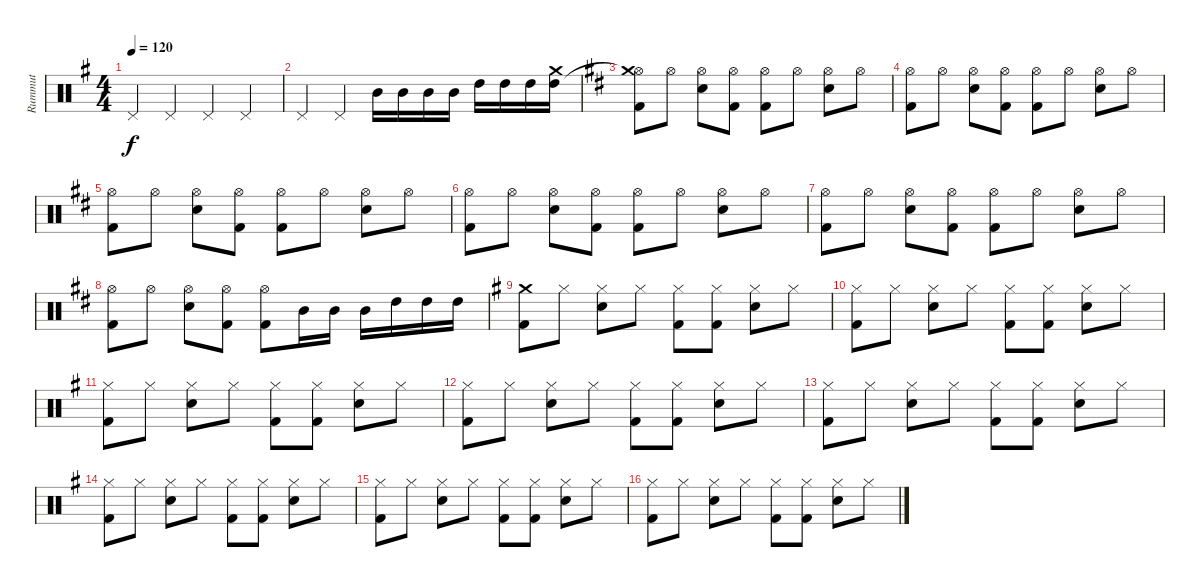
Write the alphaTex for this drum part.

\track ("Rummut" "Rummut") {instrument percussion}
\staff {score}
\articulation defaults
\ts (4 4)
\tempo 120
\clef neutral
\ks g "Pedal Hi-Hat (hit)".4{dy f} "Pedal Hi-Hat (hit)".4 "Pedal Hi-Hat (hit)".4 "Pedal Hi-Hat (hit)".4
|
"Pedal Hi-Hat (hit)".4 "Pedal Hi-Hat (hit)".4 "Mid Tom (hit)".16 "Mid Tom (hit)".16 "Mid Tom (hit)".16 "Mid Tom (hit)".16 "High Tom (hit)".16 "High Tom (hit)".16 "High Tom (hit)".16 ("Crash medium (hit)" "High Tom (hit)").16 |
\ks d
("Hi-Hat (open)" "Crash medium (hit)"{t} "Kick (hit) 2").8 "Hi-Hat (open)".8 ("Hi-Hat (open)" "Electric Snare (hit)").8 ("Hi-Hat (open)" "Kick (hit) 2").8 ("Hi-Hat (open)" "Kick (hit) 2").8 "Hi-Hat (open)".8 ("Hi-Hat (open)" "Electric Snare (hit)").8 "Hi-Hat (open)".8 |
("Hi-Hat (open)" "Kick (hit) 2").8 "Hi-Hat (open)".8 ("Hi-Hat (open)" "Electric Snare (hit)").8 ("Hi-Hat (open)" "Kick (hit) 2").8 ("Hi-Hat (open)" "Kick (hit) 2").8 "Hi-Hat (open)".8 ("Hi-Hat (open)" "Electric Snare (hit)").8 "Hi-Hat (open)".8 |
("Hi-Hat (open)" "Kick (hit) 2").8 "Hi-Hat (open)".8 ("Hi-Hat (open)" "Electric Snare (hit)").8 ("Hi-Hat (open)" "Kick (hit) 2").8 ("Hi-Hat (open)" "Kick (hit) 2").8 "Hi-Hat (open)".8 ("Hi-Hat (open)" "Electric Snare (hit)").8 "Hi-Hat (open)".8 |
("Hi-Hat (open)" "Kick (hit) 2").8 "Hi-Hat (open)".8 ("Hi-Hat (open)" "Electric Snare (hit)").8 ("Hi-Hat (open)" "Kick (hit) 2").8 ("Hi-Hat (open)" "Kick (hit) 2").8 "Hi-Hat (open)".8 ("Hi-Hat (open)" "Electric Snare (hit)").8 "Hi-Hat (open)".8 |
("Hi-Hat (open)" "Kick (hit) 2").8 "Hi-Hat (open)".8 ("Hi-Hat (open)" "Electric Snare (hit)").8 ("Hi-Hat (open)" "Kick (hit) 2").8 ("Hi-Hat (open)" "Kick (hit) 2").8 "Hi-Hat (open)".8 ("Hi-Hat (open)" "Electric Snare (hit)").8 "Hi-Hat (open)".8 |
("Hi-Hat (open)" "Kick (hit) 2").8 "Hi-Hat (open)".8 ("Hi-Hat (open)" "Electric Snare (hit)").8 ("Hi-Hat (open)" "Kick (hit) 2").8 ("Hi-Hat (open)" "Kick (hit) 2").8 "Mid Tom (hit)".16 "Mid Tom (hit)".16 "Mid Tom (hit)".16 "High Tom (hit)".16 "High Tom (hit)".16 "High Tom (hit)".16 |
\ks g
("Kick (hit) 2" "Crash medium (hit)").8 "Hi-Hat (closed)".8 ("Snare (hit) 2" "Hi-Hat (closed)").8 "Hi-Hat (closed)".8 ("Kick (hit) 2" "Hi-Hat (closed)").8 ("Kick (hit) 2" "Hi-Hat (closed)").8 ("Snare (hit) 2" "Hi-Hat (closed)").8 "Hi-Hat (closed)".8 |
("Kick (hit) 2" "Hi-Hat (closed)").8 "Hi-Hat (closed)".8 ("Snare (hit) 2" "Hi-Hat (closed)").8 "Hi-Hat (closed)".8 ("Kick (hit) 2" "Hi-Hat (closed)").8 ("Kick (hit) 2" "Hi-Hat (closed)").8 ("Snare (hit) 2" "Hi-Hat (closed)").8 "Hi-Hat (closed)".8 |
("Kick (hit) 2" "Hi-Hat (closed)").8 "Hi-Hat (closed)".8 ("Snare (hit) 2" "Hi-Hat (closed)").8 "Hi-Hat (closed)".8 ("Kick (hit) 2" "Hi-Hat (closed)").8 ("Kick (hit) 2" "Hi-Hat (closed)").8 ("Snare (hit) 2" "Hi-Hat (closed)").8 "Hi-Hat (closed)".8 |
("Kick (hit) 2" "Hi-Hat (closed)").8 "Hi-Hat (closed)".8 ("Snare (hit) 2" "Hi-Hat (closed)").8 "Hi-Hat (closed)".8 ("Kick (hit) 2" "Hi-Hat (closed)").8 ("Kick (hit) 2" "Hi-Hat (closed)").8 ("Snare (hit) 2" "Hi-Hat (closed)").8 "Hi-Hat (closed)".8 |
("Kick (hit) 2" "Hi-Hat (closed)").8 "Hi-Hat (closed)".8 ("Snare (hit) 2" "Hi-Hat (closed)").8 "Hi-Hat (closed)".8 ("Kick (hit) 2" "Hi-Hat (closed)").8 ("Kick (hit) 2" "Hi-Hat (closed)").8 ("Snare (hit) 2" "Hi-Hat (closed)").8 "Hi-Hat (closed)".8 |
("Kick (hit) 2" "Hi-Hat (closed)").8 "Hi-Hat (closed)".8 ("Snare (hit) 2" "Hi-Hat (closed)").8 "Hi-Hat (closed)".8 ("Kick (hit) 2" "Hi-Hat (closed)").8 ("Kick (hit) 2" "Hi-Hat (closed)").8 ("Snare (hit) 2" "Hi-Hat (closed)").8 "Hi-Hat (closed)".8 |
("Kick (hit) 2" "Hi-Hat (closed)").8 "Hi-Hat (closed)".8 ("Snare (hit) 2" "Hi-Hat (closed)").8 "Hi-Hat (closed)".8 ("Kick (hit) 2" "Hi-Hat (closed)").8 ("Kick (hit) 2" "Hi-Hat (closed)").8 ("Snare (hit) 2" "Hi-Hat (closed)").8 "Hi-Hat (closed)".8 |
("Kick (hit) 2" "Hi-Hat (closed)").8 "Hi-Hat (closed)".8 ("Snare (hit) 2" "Hi-Hat (closed)").8 "Hi-Hat (closed)".8 ("Kick (hit) 2" "Hi-Hat (closed)").8 ("Kick (hit) 2" "Hi-Hat (closed)").8 ("Snare (hit) 2" "Hi-Hat (closed)").8 "Hi-Hat (closed)".8
